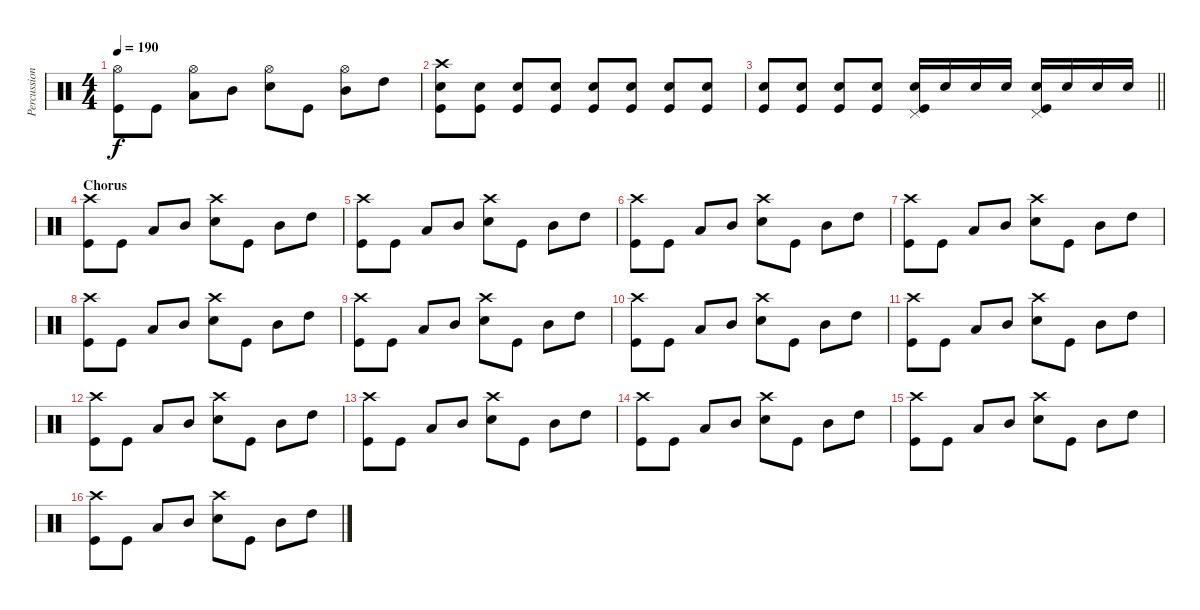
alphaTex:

\track ("Percussion" "Percussion") {instrument percussion}
\staff {score}
\articulation defaults
\ts (4 4)
\tempo 190
\clef neutral
\ks c
("Hi-Hat (open)" "Kick (hit)").8{dy f} "Kick (hit)".8 ("Hi-Hat (open)" "Low Tom (hit)").8 "Mid Tom (hit)".8 ("Snare (hit) 2" "Hi-Hat (open)").8 "Kick (hit)".8 ("Hi-Hat (open)" "Mid Tom (hit)").8 "High Tom (hit)".8 |
("Crash high (hit)" "Snare (hit) 2" "Kick (hit)").8 ("Snare (hit) 2" "Kick (hit)").8 ("Snare (hit) 2" "Kick (hit)").8 ("Snare (hit) 2" "Kick (hit)").8 ("Snare (hit) 2" "Kick (hit)").8 ("Snare (hit) 2" "Kick (hit)").8 ("Snare (hit) 2" "Kick (hit)").8 ("Snare (hit) 2" "Kick (hit)").8 |
\barLineRight lightlight
("Snare (hit) 2" "Kick (hit)").8 ("Snare (hit) 2" "Kick (hit)").8 ("Snare (hit) 2" "Kick (hit)").8 ("Snare (hit) 2" "Kick (hit)").8 ("Pedal Hi-Hat (hit)" "Snare (hit) 2" "Kick (hit)").16 "Snare (hit) 2".16 "Snare (hit) 2".16 "Snare (hit) 2".16 ("Pedal Hi-Hat (hit)" "Snare (hit) 2" "Kick (hit)").16 "Snare (hit) 2".16 "Snare (hit) 2".16 "Snare (hit) 2".16 |
\section ("" "Chorus")
("Crash high (hit)" "Kick (hit)").8 "Kick (hit)".8 "Low Tom (hit)".8 "Mid Tom (hit)".8 ("Crash high (hit)" "Snare (hit) 2").8 "Kick (hit)".8 "Mid Tom (hit)".8 "High Tom (hit)".8 |
("Crash high (hit)" "Kick (hit)").8 "Kick (hit)".8 "Low Tom (hit)".8 "Mid Tom (hit)".8 ("Crash high (hit)" "Snare (hit) 2").8 "Kick (hit)".8 "Mid Tom (hit)".8 "High Tom (hit)".8 |
("Crash high (hit)" "Kick (hit)").8 "Kick (hit)".8 "Low Tom (hit)".8 "Mid Tom (hit)".8 ("Crash high (hit)" "Snare (hit) 2").8 "Kick (hit)".8 "Mid Tom (hit)".8 "High Tom (hit)".8 |
("Crash high (hit)" "Kick (hit)").8 "Kick (hit)".8 "Low Tom (hit)".8 "Mid Tom (hit)".8 ("Crash high (hit)" "Snare (hit) 2").8 "Kick (hit)".8 "Mid Tom (hit)".8 "High Tom (hit)".8 |
("Crash high (hit)" "Kick (hit)").8 "Kick (hit)".8 "Low Tom (hit)".8 "Mid Tom (hit)".8 ("Crash high (hit)" "Snare (hit) 2").8 "Kick (hit)".8 "Mid Tom (hit)".8 "High Tom (hit)".8 |
("Crash high (hit)" "Kick (hit)").8 "Kick (hit)".8 "Low Tom (hit)".8 "Mid Tom (hit)".8 ("Crash high (hit)" "Snare (hit) 2").8 "Kick (hit)".8 "Mid Tom (hit)".8 "High Tom (hit)".8 |
("Crash high (hit)" "Kick (hit)").8 "Kick (hit)".8 "Low Tom (hit)".8 "Mid Tom (hit)".8 ("Crash high (hit)" "Snare (hit) 2").8 "Kick (hit)".8 "Mid Tom (hit)".8 "High Tom (hit)".8 |
("Crash high (hit)" "Kick (hit)").8 "Kick (hit)".8 "Low Tom (hit)".8 "Mid Tom (hit)".8 ("Crash high (hit)" "Snare (hit) 2").8 "Kick (hit)".8 "Mid Tom (hit)".8 "High Tom (hit)".8 |
("Crash high (hit)" "Kick (hit)").8 "Kick (hit)".8 "Low Tom (hit)".8 "Mid Tom (hit)".8 ("Crash high (hit)" "Snare (hit) 2").8 "Kick (hit)".8 "Mid Tom (hit)".8 "High Tom (hit)".8 |
("Crash high (hit)" "Kick (hit)").8 "Kick (hit)".8 "Low Tom (hit)".8 "Mid Tom (hit)".8 ("Crash high (hit)" "Snare (hit) 2").8 "Kick (hit)".8 "Mid Tom (hit)".8 "High Tom (hit)".8 |
("Crash high (hit)" "Kick (hit)").8 "Kick (hit)".8 "Low Tom (hit)".8 "Mid Tom (hit)".8 ("Crash high (hit)" "Snare (hit) 2").8 "Kick (hit)".8 "Mid Tom (hit)".8 "High Tom (hit)".8 |
("Crash high (hit)" "Kick (hit)").8 "Kick (hit)".8 "Low Tom (hit)".8 "Mid Tom (hit)".8 ("Crash high (hit)" "Snare (hit) 2").8 "Kick (hit)".8 "Mid Tom (hit)".8 "High Tom (hit)".8 |
("Crash high (hit)" "Kick (hit)").8 "Kick (hit)".8 "Low Tom (hit)".8 "Mid Tom (hit)".8 ("Crash high (hit)" "Snare (hit) 2").8 "Kick (hit)".8 "Mid Tom (hit)".8 "High Tom (hit)".8
